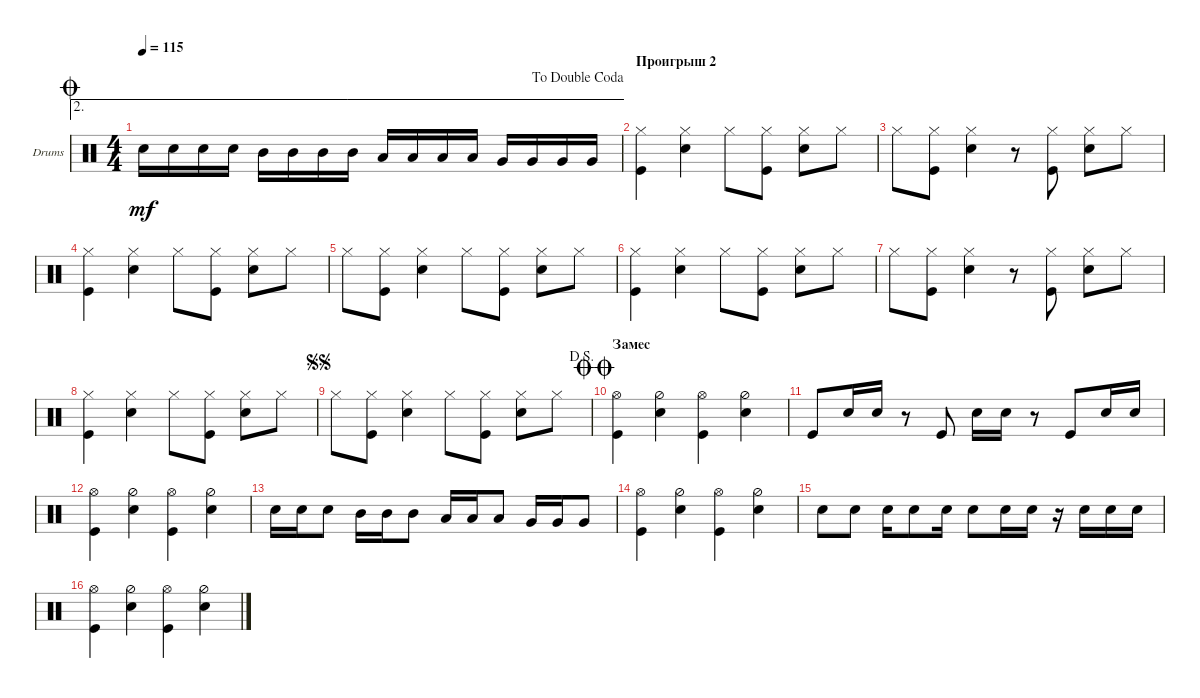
\defaultSystemsLayout 4
\bracketExtendMode groupsimilarinstruments
\firstSystemTrackNameOrientation horizontal
\otherSystemsTrackNameOrientation horizontal
\track ("Ударные" "Drums") {instrument percussion}
\staff {score}
\articulation defaults
\ae 2
\ts (4 4)
\jump coda
\jump dadoublecoda
\tempo 115
\clef neutral
\ks c "Snare (hit) 2".16{dy mf} "Snare (hit) 2".16 "Snare (hit) 2".16 "Snare (hit) 2".16 "Mid Tom (hit)".16 "Mid Tom (hit)".16 "Mid Tom (hit)".16 "Mid Tom (hit)".16 "Low Tom (hit)".16 "Low Tom (hit)".16 "Low Tom (hit)".16 "Low Tom (hit)".16 "Very Low Tom (hit)".16 "Very Low Tom (hit)".16 "Very Low Tom (hit)".16 "Very Low Tom (hit)".16
|
\section ("" "Проигрыш 2")
("Kick (hit)" "Hi-Hat (closed)").4 ("Snare (hit) 2" "Hi-Hat (closed)").4 "Hi-Hat (closed)".8 ("Kick (hit)" "Hi-Hat (closed)").8 ("Hi-Hat (closed)" "Snare (hit) 2").8 "Hi-Hat (closed)".8 |
"Hi-Hat (closed)".8 ("Kick (hit)" "Hi-Hat (closed)").8 ("Snare (hit) 2" "Hi-Hat (closed)").4 r.8 ("Kick (hit)" "Hi-Hat (closed)").8 ("Hi-Hat (closed)" "Snare (hit) 2").8 "Hi-Hat (closed)".8 |
("Kick (hit)" "Hi-Hat (closed)").4 ("Snare (hit) 2" "Hi-Hat (closed)").4 "Hi-Hat (closed)".8 ("Kick (hit)" "Hi-Hat (closed)").8 ("Hi-Hat (closed)" "Snare (hit) 2").8 "Hi-Hat (closed)".8 |
"Hi-Hat (closed)".8 ("Kick (hit)" "Hi-Hat (closed)").8 ("Snare (hit) 2" "Hi-Hat (closed)").4 "Hi-Hat (closed)".8 ("Kick (hit)" "Hi-Hat (closed)").8 ("Hi-Hat (closed)" "Snare (hit) 2").8 "Hi-Hat (closed)".8 |
("Kick (hit)" "Hi-Hat (closed)").4 ("Snare (hit) 2" "Hi-Hat (closed)").4 "Hi-Hat (closed)".8 ("Kick (hit)" "Hi-Hat (closed)").8 ("Hi-Hat (closed)" "Snare (hit) 2").8 "Hi-Hat (closed)".8 |
"Hi-Hat (closed)".8 ("Kick (hit)" "Hi-Hat (closed)").8 ("Snare (hit) 2" "Hi-Hat (closed)").4 r.8 ("Kick (hit)" "Hi-Hat (closed)").8 ("Hi-Hat (closed)" "Snare (hit) 2").8 "Hi-Hat (closed)".8 |
("Kick (hit)" "Hi-Hat (closed)").4 ("Snare (hit) 2" "Hi-Hat (closed)").4 "Hi-Hat (closed)".8 ("Kick (hit)" "Hi-Hat (closed)").8 ("Hi-Hat (closed)" "Snare (hit) 2").8 "Hi-Hat (closed)".8 |
\jump segnosegno
\jump dalsegno "Hi-Hat (closed)".8
("Kick (hit)" "Hi-Hat (closed)").8 ("Snare (hit) 2" "Hi-Hat (closed)").4 "Hi-Hat (closed)".8 ("Kick (hit)" "Hi-Hat (closed)").8 ("Hi-Hat (closed)" "Snare (hit) 2").8 "Hi-Hat (closed)".8 |
\section ("" "Замес")
\jump doublecoda
("Kick (hit)" "Hi-Hat (open)").4 ("Hi-Hat (half)" "Snare (hit) 2").4 ("Kick (hit)" "Hi-Hat (open)").4 ("Hi-Hat (half)" "Snare (hit) 2").4 |
"Kick (hit)".8 "Snare (hit) 2".16 "Snare (hit) 2".16 r.8 "Kick (hit)".8 "Snare (hit) 2".16 "Snare (hit) 2".16 r.8 "Kick (hit)".8 "Snare (hit) 2".16 "Snare (hit) 2".16 |
("Kick (hit)" "Hi-Hat (open)").4 ("Hi-Hat (half)" "Snare (hit) 2").4 ("Kick (hit)" "Hi-Hat (open)").4 ("Hi-Hat (half)" "Snare (hit) 2").4 |
"Snare (hit) 2".16 "Snare (hit) 2".16 "Snare (hit) 2".8 "Mid Tom (hit)".16 "Mid Tom (hit)".16 "Mid Tom (hit)".8 "Low Tom (hit)".16 "Low Tom (hit)".16 "Low Tom (hit)".8 "Very Low Tom (hit)".16 "Very Low Tom (hit)".16 "Very Low Tom (hit)".8 |
("Kick (hit)" "Hi-Hat (open)").4 ("Hi-Hat (half)" "Snare (hit) 2").4 ("Kick (hit)" "Hi-Hat (open)").4 ("Hi-Hat (half)" "Snare (hit) 2").4 |
"Snare (hit) 2".8 "Snare (hit) 2".8 "Snare (hit) 2".16 "Snare (hit) 2".8 "Snare (hit) 2".16 "Snare (hit) 2".8 "Snare (hit) 2".16 "Snare (hit) 2".16 r.16 "Snare (hit) 2".16 "Snare (hit) 2".16 "Snare (hit) 2".16 |
("Kick (hit)" "Hi-Hat (open)").4 ("Hi-Hat (half)" "Snare (hit) 2").4 ("Kick (hit)" "Hi-Hat (open)").4 ("Hi-Hat (half)" "Snare (hit) 2").4
